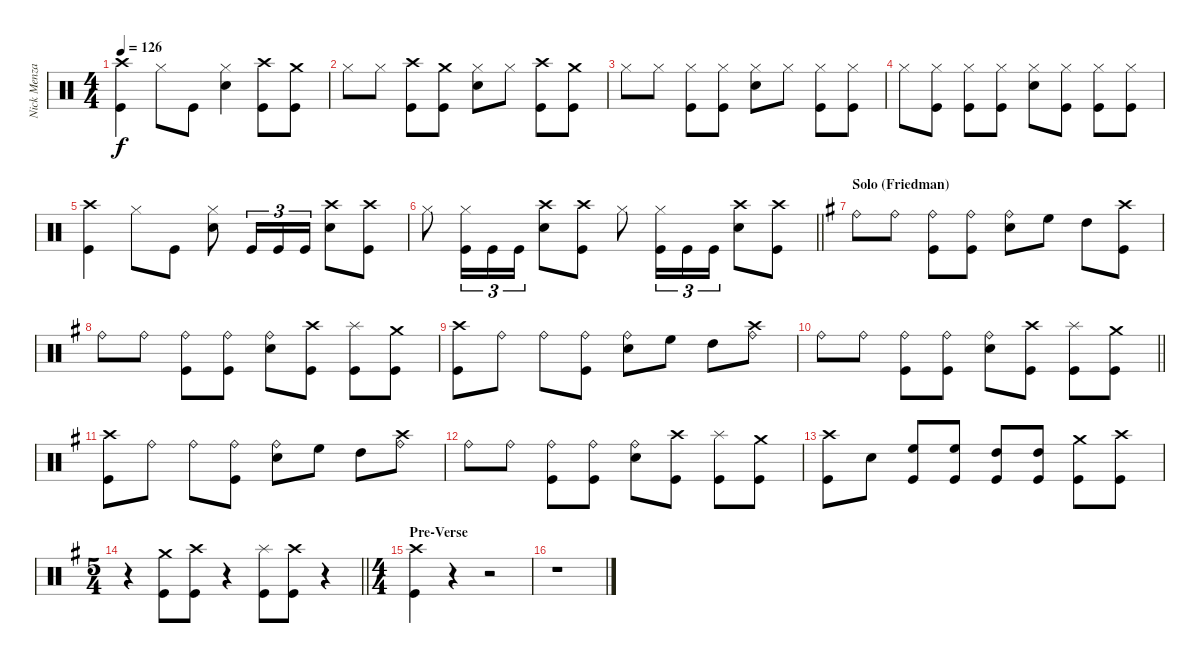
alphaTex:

\track ("Nick Menza" "Nick Menza") {instrument percussion}
\staff {score}
\articulation defaults
\ts (4 4)
\tempo 126
\clef neutral
\ks c
("Kick (hit)" "Crash high (hit)").4{dy f} "Hi-Hat (closed)".8 "Kick (hit)".8 ("Hi-Hat (closed)" "Snare (hit) 2").4 ("Kick (hit)" "Crash high (hit)").8 ("Kick (hit)" "Crash medium (hit)").8 |
"Hi-Hat (closed)".8 "Hi-Hat (closed)".8 ("Kick (hit)" "Crash high (hit)").8 ("Kick (hit)" "Crash medium (hit)").8 ("Hi-Hat (closed)" "Snare (hit) 2").8 "Hi-Hat (closed)".8 ("Kick (hit)" "Crash high (hit)").8 ("Kick (hit)" "Crash medium (hit)").8 |
"Hi-Hat (closed)".8 "Hi-Hat (closed)".8 ("Kick (hit)" "Hi-Hat (closed)").8 ("Kick (hit)" "Hi-Hat (closed)").8 ("Hi-Hat (closed)" "Snare (hit) 2").8 "Hi-Hat (closed)".8 ("Kick (hit)" "Hi-Hat (closed)").8 ("Kick (hit)" "Hi-Hat (closed)").8 |
"Hi-Hat (closed)".8 ("Kick (hit)" "Hi-Hat (closed)").8 ("Kick (hit)" "Hi-Hat (closed)").8 ("Kick (hit)" "Hi-Hat (closed)").8 ("Hi-Hat (closed)" "Snare (hit) 2").8 ("Kick (hit)" "Hi-Hat (closed)").8 ("Kick (hit)" "Hi-Hat (closed)").8 ("Kick (hit)" "Hi-Hat (closed)").8 |
("Kick (hit)" "Crash high (hit)").4 "Hi-Hat (closed)".8 "Kick (hit)".8 ("Hi-Hat (closed)" "Snare (hit) 2").8 "Kick (hit)".16{tu (3 2)} "Kick (hit)".16{tu (3 2)} "Kick (hit)".16{tu (3 2)} ("Crash high (hit)" "Snare (hit) 2").8 ("Kick (hit)" "Crash high (hit)").8 |
\barLineRight lightlight "Hi-Hat (closed)".8
("Kick (hit)" "Hi-Hat (closed)").16{tu (3 2)} "Kick (hit)".16{tu (3 2)} "Kick (hit)".16{tu (3 2)} ("Crash high (hit)" "Snare (hit) 2").8 ("Kick (hit)" "Crash high (hit)").8 "Hi-Hat (closed)".8 ("Kick (hit)" "Hi-Hat (closed)").16{tu (3 2)} "Kick (hit)".16{tu (3 2)} "Kick (hit)".16{tu (3 2)} ("Crash high (hit)" "Snare (hit) 2").8 ("Kick (hit)" "Crash high (hit)").8 |
\section ("" "Solo (Friedman)")
\ks g "Ride (bell)".8 "Ride (bell)".8
("Kick (hit)" "Ride (bell)").8 ("Kick (hit)" "Ride (bell)").8 ("Ride (bell)" "Snare (hit) 2").8 "High Floor Tom (hit)".8 "High Tom (hit)".8 ("Kick (hit)" "Crash high (hit)").8 |
"Ride (bell)".8 "Ride (bell)".8 ("Kick (hit)" "Ride (bell)").8 ("Kick (hit)" "Ride (bell)").8 ("Ride (bell)" "Snare (hit) 2").8 ("Kick (hit)" "Crash high (hit)").8 ("Kick (hit)" "Splash (hit)").8 ("Kick (hit)" "Crash medium (hit)").8 |
("Kick (hit)" "Crash high (hit)").8 "Ride (bell)".8 "Ride (bell)".8 ("Kick (hit)" "Ride (bell)").8 ("Ride (bell)" "Snare (hit) 2").8 "High Floor Tom (hit)".8 "High Tom (hit)".8 ("Ride (bell)" "Crash high (hit)").8 |
\barLineRight lightlight "Ride (bell)".8 "Ride (bell)".8
("Kick (hit)" "Ride (bell)").8 ("Kick (hit)" "Ride (bell)").8 ("Ride (bell)" "Snare (hit) 2").8 ("Kick (hit)" "Crash high (hit)").8 ("Kick (hit)" "Splash (hit)").8 ("Kick (hit)" "Crash medium (hit)").8 |
("Kick (hit)" "Crash high (hit)").8 "Ride (bell)".8 "Ride (bell)".8 ("Kick (hit)" "Ride (bell)").8 ("Ride (bell)" "Snare (hit) 2").8 "High Floor Tom (hit)".8 "High Tom (hit)".8 ("Ride (bell)" "Crash high (hit)").8 |
"Ride (bell)".8 "Ride (bell)".8 ("Kick (hit)" "Ride (bell)").8 ("Kick (hit)" "Ride (bell)").8 ("Ride (bell)" "Snare (hit) 2").8 ("Kick (hit)" "Crash high (hit)").8 ("Kick (hit)" "Splash (hit)").8 ("Kick (hit)" "Crash medium (hit)").8 |
("Kick (hit)" "Crash high (hit)").8 "Snare (hit) 2".8 ("Kick (hit)" "High Floor Tom (hit)").8 ("Kick (hit)" "High Floor Tom (hit)").8 ("Kick (hit)" "High Tom (hit)").8 ("Kick (hit)" "High Tom (hit)").8 ("Kick (hit)" "Crash medium (hit)").8 ("Kick (hit)" "Crash high (hit)").8 |
\ts (5 4)
\barLineRight lightlight
r.4 ("Kick (hit)" "Crash medium (hit)").8 ("Kick (hit)" "Crash high (hit)").8 r.4 ("Kick (hit)" "Splash (hit)").8 ("Kick (hit)" "Crash high (hit)").8 r.4 |
\ts (4 4)
\section ("" "Pre-Verse")
("Kick (hit)" "Crash high (hit)").4 r.4 r.2 |
r.1
